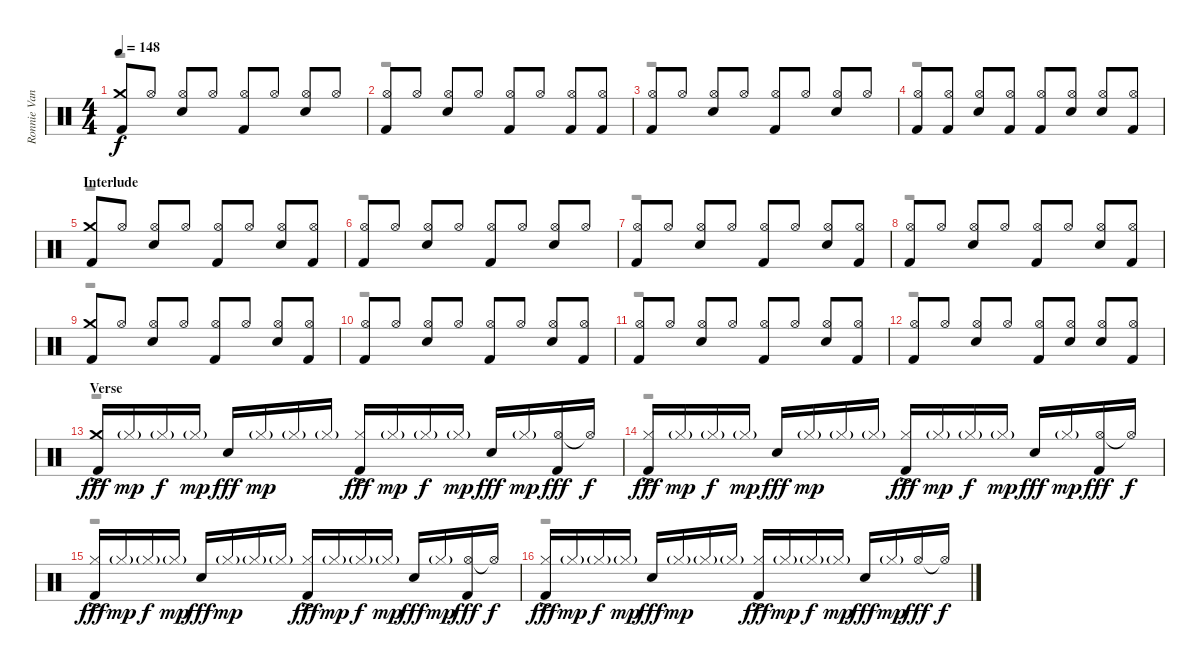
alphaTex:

\track ("Ronnie Vannucci Jr. - Drums" "Ronnie Van") {instrument percussion}
\staff {score}
\articulation defaults
\voice
\ts (4 4)
\tempo 148
\clef neutral
\ks c
("Crash medium (hit)" "Kick (hit) 2").8{dy f} "Hi-Hat (open)".8 ("Hi-Hat (open)" "Electric Snare (hit)").8 "Hi-Hat (open)".8 ("Hi-Hat (open)" "Kick (hit) 2").8 "Hi-Hat (open)".8 ("Hi-Hat (open)" "Electric Snare (hit)").8 "Hi-Hat (open)".8 |
("Hi-Hat (open)" "Kick (hit) 2").8 "Hi-Hat (open)".8 ("Hi-Hat (open)" "Electric Snare (hit)").8 "Hi-Hat (open)".8 ("Hi-Hat (open)" "Kick (hit) 2").8 "Hi-Hat (open)".8 ("Hi-Hat (open)" "Kick (hit) 2").8 ("Hi-Hat (open)" "Kick (hit) 2").8 |
("Hi-Hat (open)" "Kick (hit) 2").8 "Hi-Hat (open)".8 ("Hi-Hat (open)" "Electric Snare (hit)").8 "Hi-Hat (open)".8 ("Hi-Hat (open)" "Kick (hit) 2").8 "Hi-Hat (open)".8 ("Hi-Hat (open)" "Electric Snare (hit)").8 "Hi-Hat (open)".8 |
("Hi-Hat (open)" "Kick (hit) 2").8 ("Hi-Hat (open)" "Kick (hit) 2").8 ("Hi-Hat (open)" "Electric Snare (hit)").8 ("Hi-Hat (open)" "Kick (hit) 2").8 ("Hi-Hat (open)" "Kick (hit) 2").8 ("Hi-Hat (open)" "Electric Snare (hit)").8 ("Hi-Hat (open)" "Electric Snare (hit)").8 ("Hi-Hat (open)" "Kick (hit) 2").8 |
\section ("" "Interlude")
("Crash medium (hit)" "Kick (hit) 2").8 "Hi-Hat (open)".8 ("Hi-Hat (open)" "Electric Snare (hit)").8 "Hi-Hat (open)".8 ("Hi-Hat (open)" "Kick (hit) 2").8 "Hi-Hat (open)".8 ("Hi-Hat (open)" "Electric Snare (hit)").8 ("Hi-Hat (open)" "Kick (hit) 2").8 |
("Hi-Hat (open)" "Kick (hit) 2").8 "Hi-Hat (open)".8 ("Hi-Hat (open)" "Electric Snare (hit)").8 "Hi-Hat (open)".8 ("Hi-Hat (open)" "Kick (hit) 2").8 "Hi-Hat (open)".8 ("Hi-Hat (open)" "Electric Snare (hit)").8 "Hi-Hat (open)".8 |
("Hi-Hat (open)" "Kick (hit) 2").8 "Hi-Hat (open)".8 ("Hi-Hat (open)" "Electric Snare (hit)").8 "Hi-Hat (open)".8 ("Hi-Hat (open)" "Kick (hit) 2").8 "Hi-Hat (open)".8 ("Hi-Hat (open)" "Electric Snare (hit)").8 ("Hi-Hat (open)" "Kick (hit) 2").8 |
("Hi-Hat (open)" "Kick (hit) 2").8 "Hi-Hat (open)".8 ("Hi-Hat (open)" "Electric Snare (hit)").8 "Hi-Hat (open)".8 ("Hi-Hat (open)" "Kick (hit) 2").8 "Hi-Hat (open)".8 ("Hi-Hat (open)" "Electric Snare (hit)").8 ("Hi-Hat (open)" "Kick (hit) 2").8 |
("Crash medium (hit)" "Kick (hit) 2").8 "Hi-Hat (open)".8 ("Hi-Hat (open)" "Electric Snare (hit)").8 "Hi-Hat (open)".8 ("Hi-Hat (open)" "Kick (hit) 2").8 "Hi-Hat (open)".8 ("Hi-Hat (open)" "Electric Snare (hit)").8 ("Hi-Hat (open)" "Kick (hit) 2").8 |
("Hi-Hat (open)" "Kick (hit) 2").8 "Hi-Hat (open)".8 ("Hi-Hat (open)" "Electric Snare (hit)").8 "Hi-Hat (open)".8 ("Hi-Hat (open)" "Kick (hit) 2").8 "Hi-Hat (open)".8 ("Hi-Hat (open)" "Electric Snare (hit)").8 ("Hi-Hat (open)" "Kick (hit) 2").8 |
("Hi-Hat (open)" "Kick (hit) 2").8 "Hi-Hat (open)".8 ("Hi-Hat (open)" "Electric Snare (hit)").8 "Hi-Hat (open)".8 ("Hi-Hat (open)" "Kick (hit) 2").8 "Hi-Hat (open)".8 ("Hi-Hat (open)" "Electric Snare (hit)").8 ("Hi-Hat (open)" "Kick (hit) 2").8 |
("Hi-Hat (open)" "Kick (hit) 2").8 "Hi-Hat (open)".8 ("Hi-Hat (open)" "Electric Snare (hit)").8 "Hi-Hat (open)".8 ("Hi-Hat (open)" "Kick (hit) 2").8 ("Hi-Hat (open)" "Electric Snare (hit)").8 ("Hi-Hat (open)" "Electric Snare (hit)").8 ("Hi-Hat (open)" "Kick (hit) 2").8 |
\section ("" "Verse")
("Crash medium (hit)"{ac} "Kick (hit) 2").16{dy fff} "Hi-Hat (closed)"{g}.16{dy mp} "Hi-Hat (closed)"{g}.16{dy f} "Hi-Hat (closed)"{g}.16{dy mp} "Electric Snare (hit)".16{dy fff} "Hi-Hat (closed)"{g}.16{dy mp} "Hi-Hat (closed)"{g}.16 "Hi-Hat (closed)"{g}.16 ("Hi-Hat (closed)"{ac} "Kick (hit) 2"{ac}).16{dy fff} "Hi-Hat (closed)"{g}.16{dy mp} "Hi-Hat (closed)"{g}.16{dy f} "Hi-Hat (closed)"{g}.16{dy mp} "Electric Snare (hit)".16{dy fff} "Hi-Hat (closed)"{g}.16{dy mp} ("Hi-Hat (open)" "Kick (hit) 2").16{dy fff} "Hi-Hat (open)"{t}.16{dy f} |
("Hi-Hat (closed)"{ac} "Kick (hit) 2").16{dy fff} "Hi-Hat (closed)"{g}.16{dy mp} "Hi-Hat (closed)"{g}.16{dy f} "Hi-Hat (closed)"{g}.16{dy mp} "Electric Snare (hit)".16{dy fff} "Hi-Hat (closed)"{g}.16{dy mp} "Hi-Hat (closed)"{g}.16 "Hi-Hat (closed)"{g}.16 ("Hi-Hat (closed)"{ac} "Kick (hit) 2"{ac}).16{dy fff} "Hi-Hat (closed)"{g}.16{dy mp} "Hi-Hat (closed)"{g}.16{dy f} "Hi-Hat (closed)"{g}.16{dy mp} "Electric Snare (hit)".16{dy fff} "Hi-Hat (closed)"{g}.16{dy mp} ("Hi-Hat (open)" "Kick (hit) 2").16{dy fff} "Hi-Hat (open)"{t}.16{dy f} |
("Hi-Hat (closed)"{ac} "Kick (hit) 2").16{dy fff} "Hi-Hat (closed)"{g}.16{dy mp} "Hi-Hat (closed)"{g}.16{dy f} "Hi-Hat (closed)"{g}.16{dy mp} "Electric Snare (hit)".16{dy fff} "Hi-Hat (closed)"{g}.16{dy mp} "Hi-Hat (closed)"{g}.16 "Hi-Hat (closed)"{g}.16 ("Hi-Hat (closed)"{ac} "Kick (hit) 2"{ac}).16{dy fff} "Hi-Hat (closed)"{g}.16{dy mp} "Hi-Hat (closed)"{g}.16{dy f} "Hi-Hat (closed)"{g}.16{dy mp} "Electric Snare (hit)".16{dy fff} "Hi-Hat (closed)"{g}.16{dy mp} ("Hi-Hat (open)" "Kick (hit) 2").16{dy fff} "Hi-Hat (open)"{t}.16{dy f} |
("Hi-Hat (closed)"{ac} "Kick (hit) 2").16{dy fff} "Hi-Hat (closed)"{g}.16{dy mp} "Hi-Hat (closed)"{g}.16{dy f} "Hi-Hat (closed)"{g}.16{dy mp} "Electric Snare (hit)".16{dy fff} "Hi-Hat (closed)"{g}.16{dy mp} "Hi-Hat (closed)"{g}.16 "Hi-Hat (closed)"{g}.16 ("Hi-Hat (closed)"{ac} "Kick (hit) 2"{ac}).16{dy fff} "Hi-Hat (closed)"{g}.16{dy mp} "Hi-Hat (closed)"{g}.16{dy f} "Hi-Hat (closed)"{g}.16{dy mp} "Electric Snare (hit)".16{dy fff} "Hi-Hat (closed)"{g}.16{dy mp} "Hi-Hat (open)".16{dy fff} "Hi-Hat (open)"{t}.16{dy f}
\voice
\clef neutral
\ottava regular
\simile none
\ks c
r.1{dy f} |
r.1 |
r.1 |
r.1 |
r.1 |
r.1 |
r.1 |
r.1 |
r.1 |
r.1 |
r.1 |
r.1 |
r.1 |
r.1 |
r.1 |
r.1
